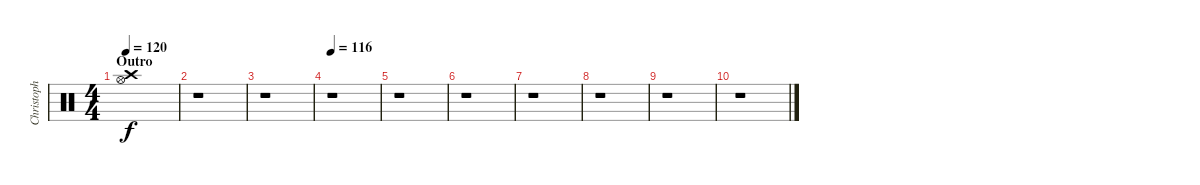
\track ("Christoph Schneider" "Christoph ") {instrument percussion}
\staff {score}
\articulation defaults
\ts (4 4)
\section ("" "Outro")
\tempo 120
\clef neutral
\ks c
("Hi-Hat (open)" "Crash high (hit)").1{dy f} |
r.1 |
r.1 |
\tempo 116
r.1 |
r.1 |
r.1 |
r.1 |
r.1 |
r.1 |
r.1
